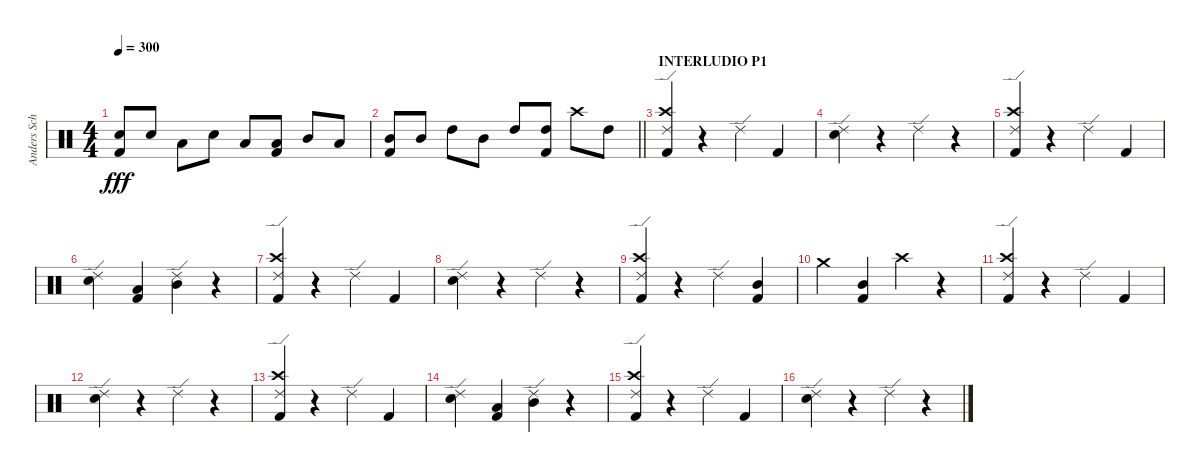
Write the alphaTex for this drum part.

\track ("Anders Schultz" "Anders Sch") {instrument percussion}
\staff {score}
\articulation defaults
\ts (4 4)
\tempo 300
\clef neutral
\ks c
("Snare (hit) 2" "Kick (hit) 2").8{dy fff} "Snare (hit) 2".8 "Low Tom (hit)".8 "Snare (hit) 2".8 "Low Tom (hit)".8 ("Low Tom (hit)" "Kick (hit) 2").8 "Mid Tom (hit)".8 "Low Tom (hit)".8 |
\barLineRight lightlight
("Mid Tom (hit)" "Kick (hit) 2").8 "Mid Tom (hit)".8 "High Tom (hit)".8 "Mid Tom (hit)".8 "High Tom (hit)".8 ("High Tom (hit)" "Kick (hit) 2").8 "Crash high (hit)".8 "High Tom (hit)".8 |
\section ("" "INTERLUDIO P1")
("Ride (edge) 2" "Crash high (hit)" "Kick (hit) 2").4 r.4 "Ride (edge) 2".4 "Kick (hit) 2".4 |
("Ride (edge) 2" "Snare (hit) 2").4 r.4 "Ride (edge) 2".4 r.4 |
("Ride (edge) 2" "Crash high (hit)" "Kick (hit) 2").4 r.4 "Ride (edge) 2".4 "Kick (hit) 2".4 |
("Ride (edge) 2" "Snare (hit) 2").4 ("Low Tom (hit)" "Kick (hit) 2").4 ("Ride (edge) 2" "Mid Tom (hit)").4 r.4 |
("Ride (edge) 2" "Crash high (hit)" "Kick (hit) 2").4 r.4 "Ride (edge) 2".4 "Kick (hit) 2".4 |
("Ride (edge) 2" "Snare (hit) 2").4 r.4 "Ride (edge) 2".4 r.4 |
("Ride (edge) 2" "Crash high (hit)" "Kick (hit) 2").4 r.4 "Ride (edge) 2".4 ("Mid Tom (hit)" "Kick (hit) 2").4 |
"Crash medium (hit)".4 ("Mid Tom (hit)" "Kick (hit) 2").4 "Crash high (hit)".4 r.4 |
("Ride (edge) 2" "Crash high (hit)" "Kick (hit) 2").4 r.4 "Ride (edge) 2".4 "Kick (hit) 2".4 |
("Ride (edge) 2" "Snare (hit) 2").4 r.4 "Ride (edge) 2".4 r.4 |
("Ride (edge) 2" "Crash high (hit)" "Kick (hit) 2").4 r.4 "Ride (edge) 2".4 "Kick (hit) 2".4 |
("Ride (edge) 2" "Snare (hit) 2").4 ("Low Tom (hit)" "Kick (hit) 2").4 ("Ride (edge) 2" "Mid Tom (hit)").4 r.4 |
("Ride (edge) 2" "Crash high (hit)" "Kick (hit) 2").4 r.4 "Ride (edge) 2".4 "Kick (hit) 2".4 |
("Ride (edge) 2" "Snare (hit) 2").4 r.4 "Ride (edge) 2".4 r.4
